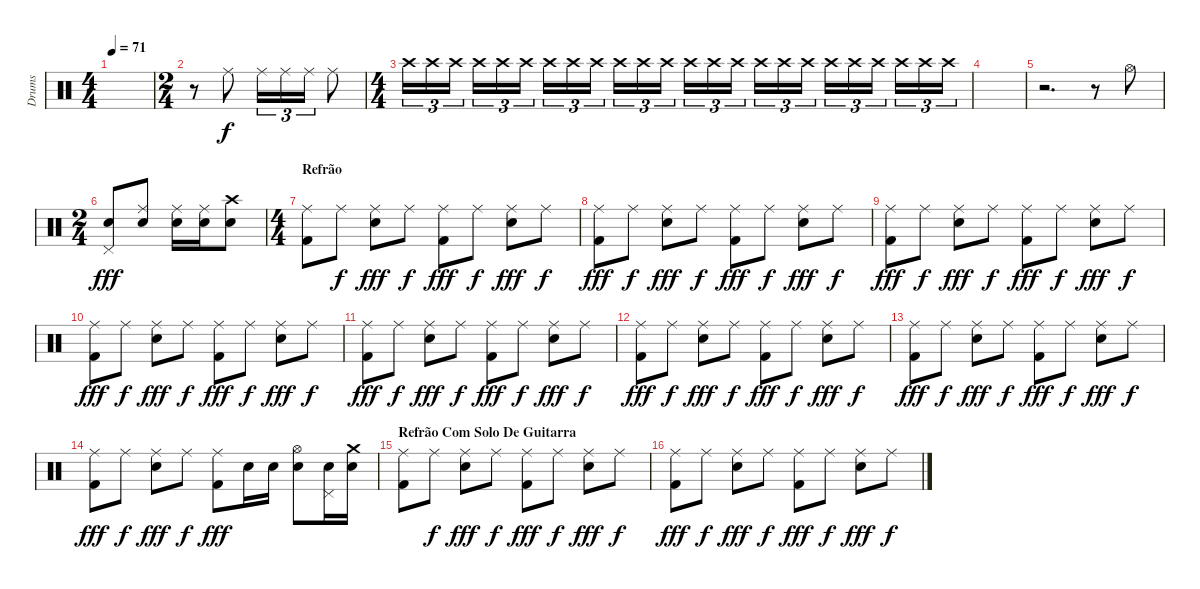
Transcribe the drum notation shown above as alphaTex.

\track ("Drums" "Drums") {instrument percussion}
\staff {score}
\articulation defaults
\ts (4 4)
\tempo 71
\clef neutral
\ks c
|
\ts (2 4)
r.8 "Ride (middle)".8{dy f} "Ride (middle)".16{tu (3 2)} "Ride (middle)".16{tu (3 2)} "Ride (middle)".16{tu (3 2)} "Ride (middle)".8 |
\ts (4 4)
"Crash high (hit)".16{tu (3 2) volume 1} "Crash high (hit)".16{tu (3 2) volume 11} "Crash high (hit)".16{tu (3 2)} "Crash high (hit)".16{tu (3 2)} "Crash high (hit)".16{tu (3 2)} "Crash high (hit)".16{tu (3 2)} "Crash high (hit)".16{tu (3 2)} "Crash high (hit)".16{tu (3 2)} "Crash high (hit)".16{tu (3 2)} "Crash high (hit)".16{tu (3 2)} "Crash high (hit)".16{tu (3 2)} "Crash high (hit)".16{tu (3 2)} "Crash high (hit)".16{tu (3 2)} "Crash high (hit)".16{tu (3 2) volume 1} "Crash high (hit)".16{tu (3 2)} "Crash high (hit)".16{tu (3 2)} "Crash high (hit)".16{tu (3 2)} "Crash high (hit)".16{tu (3 2)} "Crash high (hit)".16{tu (3 2)} "Crash high (hit)".16{tu (3 2)} "Crash high (hit)".16{tu (3 2)} "Crash high (hit)".16{tu (3 2)} "Crash high (hit)".16{tu (3 2)} "Crash high (hit)".16{tu (3 2)} |
|
r.2{d} r.8 "Hi-Hat (open)".8{volume 13} |
\ts (2 4)
("Electric Snare (hit)" "Pedal Hi-Hat (hit)").8{dy fff} ("Electric Snare (hit)" "Ride (middle)").8 ("Electric Snare (hit)" "Ride (middle)").16 ("Electric Snare (hit)" "Ride (middle)").16 ("Electric Snare (hit)" "Crash high (hit)").8 |
\ts (4 4)
\section ("" "Refrão")
("Ride (middle)" "Kick (hit) 2").8 "Ride (middle)".8{dy f} ("Ride (middle)" "Electric Snare (hit)").8{dy fff} "Ride (middle)".8{dy f} ("Ride (middle)" "Kick (hit) 2").8{dy fff} "Ride (middle)".8{dy f} ("Ride (middle)" "Electric Snare (hit)").8{dy fff} "Ride (middle)".8{dy f} |
("Ride (middle)" "Kick (hit) 2").8{dy fff} "Ride (middle)".8{dy f} ("Ride (middle)" "Electric Snare (hit)").8{dy fff} "Ride (middle)".8{dy f} ("Ride (middle)" "Kick (hit) 2").8{dy fff} "Ride (middle)".8{dy f} ("Ride (middle)" "Electric Snare (hit)").8{dy fff} "Ride (middle)".8{dy f} |
("Ride (middle)" "Kick (hit) 2").8{dy fff} "Ride (middle)".8{dy f} ("Ride (middle)" "Electric Snare (hit)").8{dy fff} "Ride (middle)".8{dy f} ("Ride (middle)" "Kick (hit) 2").8{dy fff} "Ride (middle)".8{dy f} ("Ride (middle)" "Electric Snare (hit)").8{dy fff} "Ride (middle)".8{dy f} |
("Ride (middle)" "Kick (hit) 2").8{dy fff} "Ride (middle)".8{dy f} ("Ride (middle)" "Electric Snare (hit)").8{dy fff} "Ride (middle)".8{dy f} ("Ride (middle)" "Kick (hit) 2").8{dy fff} "Ride (middle)".8{dy f} ("Ride (middle)" "Electric Snare (hit)").8{dy fff} "Ride (middle)".8{dy f} |
("Ride (middle)" "Kick (hit) 2").8{dy fff} "Ride (middle)".8{dy f} ("Ride (middle)" "Electric Snare (hit)").8{dy fff} "Ride (middle)".8{dy f} ("Ride (middle)" "Kick (hit) 2").8{dy fff} "Ride (middle)".8{dy f} ("Ride (middle)" "Electric Snare (hit)").8{dy fff} "Ride (middle)".8{dy f} |
("Ride (middle)" "Kick (hit) 2").8{dy fff} "Ride (middle)".8{dy f} ("Ride (middle)" "Electric Snare (hit)").8{dy fff} "Ride (middle)".8{dy f} ("Ride (middle)" "Kick (hit) 2").8{dy fff} "Ride (middle)".8{dy f} ("Ride (middle)" "Electric Snare (hit)").8{dy fff} "Ride (middle)".8{dy f} |
("Ride (middle)" "Kick (hit) 2").8{dy fff} "Ride (middle)".8{dy f} ("Ride (middle)" "Electric Snare (hit)").8{dy fff} "Ride (middle)".8{dy f} ("Ride (middle)" "Kick (hit) 2").8{dy fff} "Ride (middle)".8{dy f} ("Ride (middle)" "Electric Snare (hit)").8{dy fff} "Ride (middle)".8{dy f} |
("Ride (middle)" "Kick (hit) 2").8{dy fff} "Ride (middle)".8{dy f} ("Ride (middle)" "Electric Snare (hit)").8{dy fff} "Ride (middle)".8{dy f} ("Ride (middle)" "Kick (hit) 2").8{dy fff} "Electric Snare (hit)".16 "Electric Snare (hit)".16 ("Hi-Hat (open)" "Electric Snare (hit)").8 ("Pedal Hi-Hat (hit)" "Electric Snare (hit)").16 ("Electric Snare (hit)" "Crash medium (hit)").16 |
\section ("" "Refrão Com Solo De Guitarra")
("Ride (middle)" "Kick (hit) 2").8 "Ride (middle)".8{dy f} ("Ride (middle)" "Electric Snare (hit)").8{dy fff} "Ride (middle)".8{dy f} ("Ride (middle)" "Kick (hit) 2").8{dy fff} "Ride (middle)".8{dy f} ("Ride (middle)" "Electric Snare (hit)").8{dy fff} "Ride (middle)".8{dy f} |
("Ride (middle)" "Kick (hit) 2").8{dy fff} "Ride (middle)".8{dy f} ("Ride (middle)" "Electric Snare (hit)").8{dy fff} "Ride (middle)".8{dy f} ("Ride (middle)" "Kick (hit) 2").8{dy fff} "Ride (middle)".8{dy f} ("Ride (middle)" "Electric Snare (hit)").8{dy fff} "Ride (middle)".8{dy f}
